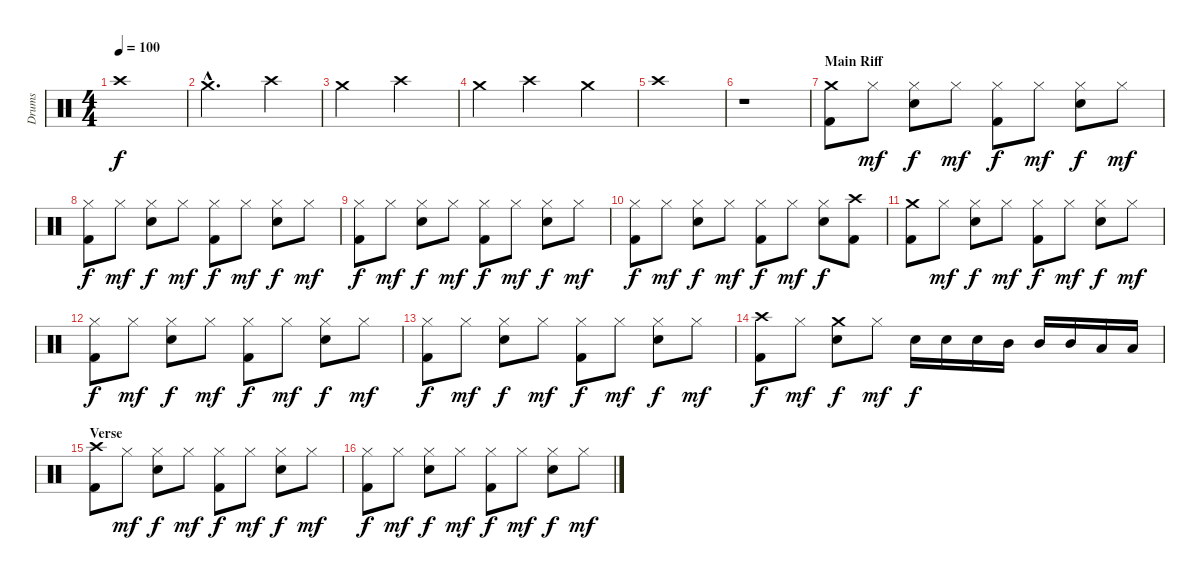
\track ("Drums" "Drums") {instrument percussion}
\staff {score}
\articulation defaults
\ts (4 4)
\tempo 100
\clef neutral
\ks c "Crash high (hit)".1{dy f}
|
"Crash medium (hit)"{hac}.2{d} "Crash high (hit)".4 |
"Crash medium (hit)".2 "Crash high (hit)".2 |
"Crash medium (hit)".4 "Crash high (hit)".2 "Crash medium (hit)".4 |
"Crash high (hit)".1 |
r.1 |
\section ("" "Main Riff")
("Crash medium (hit)" "Kick (hit) 2").8 "Hi-Hat (closed)".8{dy mf} ("Hi-Hat (closed)" "Snare (hit) 2").8{dy f} "Hi-Hat (closed)".8{dy mf} ("Hi-Hat (closed)" "Kick (hit) 2").8{dy f} "Hi-Hat (closed)".8{dy mf} ("Hi-Hat (closed)" "Snare (hit) 2").8{dy f} "Hi-Hat (closed)".8{dy mf} |
("Hi-Hat (closed)" "Kick (hit) 2").8{dy f} "Hi-Hat (closed)".8{dy mf} ("Hi-Hat (closed)" "Snare (hit) 2").8{dy f} "Hi-Hat (closed)".8{dy mf} ("Hi-Hat (closed)" "Kick (hit) 2").8{dy f} "Hi-Hat (closed)".8{dy mf} ("Hi-Hat (closed)" "Snare (hit) 2").8{dy f} "Hi-Hat (closed)".8{dy mf} |
("Hi-Hat (closed)" "Kick (hit) 2").8{dy f} "Hi-Hat (closed)".8{dy mf} ("Hi-Hat (closed)" "Snare (hit) 2").8{dy f} "Hi-Hat (closed)".8{dy mf} ("Hi-Hat (closed)" "Kick (hit) 2").8{dy f} "Hi-Hat (closed)".8{dy mf} ("Hi-Hat (closed)" "Snare (hit) 2").8{dy f} "Hi-Hat (closed)".8{dy mf} |
("Hi-Hat (closed)" "Kick (hit) 2").8{dy f} "Hi-Hat (closed)".8{dy mf} ("Hi-Hat (closed)" "Snare (hit) 2").8{dy f} "Hi-Hat (closed)".8{dy mf} ("Hi-Hat (closed)" "Kick (hit) 2").8{dy f} "Hi-Hat (closed)".8{dy mf} ("Hi-Hat (closed)" "Snare (hit) 2").8{dy f} ("Crash high (hit)" "Kick (hit) 2").8 |
("Crash medium (hit)" "Kick (hit) 2").8 "Hi-Hat (closed)".8{dy mf} ("Hi-Hat (closed)" "Snare (hit) 2").8{dy f} "Hi-Hat (closed)".8{dy mf} ("Hi-Hat (closed)" "Kick (hit) 2").8{dy f} "Hi-Hat (closed)".8{dy mf} ("Hi-Hat (closed)" "Snare (hit) 2").8{dy f} "Hi-Hat (closed)".8{dy mf} |
("Hi-Hat (closed)" "Kick (hit) 2").8{dy f} "Hi-Hat (closed)".8{dy mf} ("Hi-Hat (closed)" "Snare (hit) 2").8{dy f} "Hi-Hat (closed)".8{dy mf} ("Hi-Hat (closed)" "Kick (hit) 2").8{dy f} "Hi-Hat (closed)".8{dy mf} ("Hi-Hat (closed)" "Snare (hit) 2").8{dy f} "Hi-Hat (closed)".8{dy mf} |
("Hi-Hat (closed)" "Kick (hit) 2").8{dy f} "Hi-Hat (closed)".8{dy mf} ("Hi-Hat (closed)" "Snare (hit) 2").8{dy f} "Hi-Hat (closed)".8{dy mf} ("Hi-Hat (closed)" "Kick (hit) 2").8{dy f} "Hi-Hat (closed)".8{dy mf} ("Hi-Hat (closed)" "Snare (hit) 2").8{dy f} "Hi-Hat (closed)".8{dy mf} |
("Crash high (hit)" "Kick (hit) 2").8{dy f} "Hi-Hat (closed)".8{dy mf} ("Crash medium (hit)" "Snare (hit) 2").8{dy f} "Hi-Hat (closed)".8{dy mf} "Snare (hit) 2".16{dy f} "Snare (hit) 2".16 "Snare (hit) 2".16 "Mid Tom (hit)".16 "Mid Tom (hit)".16 "Mid Tom (hit)".16 "Low Tom (hit)".16 "Low Tom (hit)".16 |
\section ("" "Verse")
("Crash high (hit)" "Kick (hit) 2").8 "Hi-Hat (closed)".8{dy mf} ("Hi-Hat (closed)" "Snare (hit) 2").8{dy f} "Hi-Hat (closed)".8{dy mf} ("Hi-Hat (closed)" "Kick (hit) 2").8{dy f} "Hi-Hat (closed)".8{dy mf} ("Hi-Hat (closed)" "Snare (hit) 2").8{dy f} "Hi-Hat (closed)".8{dy mf} |
("Hi-Hat (closed)" "Kick (hit) 2").8{dy f} "Hi-Hat (closed)".8{dy mf} ("Hi-Hat (closed)" "Snare (hit) 2").8{dy f} "Hi-Hat (closed)".8{dy mf} ("Hi-Hat (closed)" "Kick (hit) 2").8{dy f} "Hi-Hat (closed)".8{dy mf} ("Hi-Hat (closed)" "Snare (hit) 2").8{dy f} "Hi-Hat (closed)".8{dy mf}
